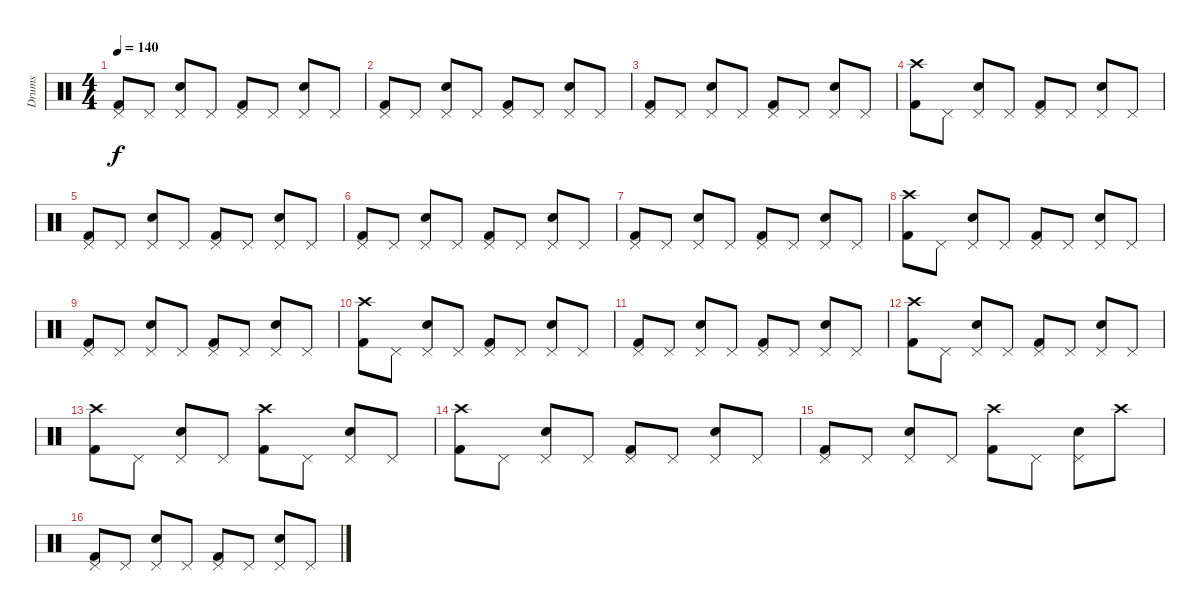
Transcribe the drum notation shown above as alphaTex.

\track ("Drums" "Drums") {instrument percussion}
\staff {score}
\articulation defaults
\ts (4 4)
\tempo 140
\clef neutral
\ks c
("Pedal Hi-Hat (hit)" "Kick (hit) 2").8{dy f} "Pedal Hi-Hat (hit)".8 ("Pedal Hi-Hat (hit)" "Snare (hit) 2").8 "Pedal Hi-Hat (hit)".8 ("Pedal Hi-Hat (hit)" "Kick (hit) 2").8 "Pedal Hi-Hat (hit)".8 ("Pedal Hi-Hat (hit)" "Snare (hit) 2").8 "Pedal Hi-Hat (hit)".8 |
("Pedal Hi-Hat (hit)" "Kick (hit) 2").8 "Pedal Hi-Hat (hit)".8 ("Pedal Hi-Hat (hit)" "Snare (hit) 2").8 "Pedal Hi-Hat (hit)".8 ("Pedal Hi-Hat (hit)" "Kick (hit) 2").8 "Pedal Hi-Hat (hit)".8 ("Pedal Hi-Hat (hit)" "Snare (hit) 2").8 "Pedal Hi-Hat (hit)".8 |
("Pedal Hi-Hat (hit)" "Kick (hit) 2").8 "Pedal Hi-Hat (hit)".8 ("Pedal Hi-Hat (hit)" "Snare (hit) 2").8 "Pedal Hi-Hat (hit)".8 ("Pedal Hi-Hat (hit)" "Kick (hit) 2").8 "Pedal Hi-Hat (hit)".8 ("Pedal Hi-Hat (hit)" "Snare (hit) 2").8 "Pedal Hi-Hat (hit)".8 |
("Crash high (hit)" "Kick (hit) 2").8 "Pedal Hi-Hat (hit)".8 ("Pedal Hi-Hat (hit)" "Snare (hit) 2").8 "Pedal Hi-Hat (hit)".8 ("Pedal Hi-Hat (hit)" "Kick (hit) 2").8 "Pedal Hi-Hat (hit)".8 ("Pedal Hi-Hat (hit)" "Snare (hit) 2").8 "Pedal Hi-Hat (hit)".8 |
("Pedal Hi-Hat (hit)" "Kick (hit) 2").8 "Pedal Hi-Hat (hit)".8 ("Pedal Hi-Hat (hit)" "Snare (hit) 2").8 "Pedal Hi-Hat (hit)".8 ("Pedal Hi-Hat (hit)" "Kick (hit) 2").8 "Pedal Hi-Hat (hit)".8 ("Pedal Hi-Hat (hit)" "Snare (hit) 2").8 "Pedal Hi-Hat (hit)".8 |
("Pedal Hi-Hat (hit)" "Kick (hit) 2").8 "Pedal Hi-Hat (hit)".8 ("Pedal Hi-Hat (hit)" "Snare (hit) 2").8 "Pedal Hi-Hat (hit)".8 ("Pedal Hi-Hat (hit)" "Kick (hit) 2").8 "Pedal Hi-Hat (hit)".8 ("Pedal Hi-Hat (hit)" "Snare (hit) 2").8 "Pedal Hi-Hat (hit)".8 |
("Pedal Hi-Hat (hit)" "Kick (hit) 2").8 "Pedal Hi-Hat (hit)".8 ("Pedal Hi-Hat (hit)" "Snare (hit) 2").8 "Pedal Hi-Hat (hit)".8 ("Pedal Hi-Hat (hit)" "Kick (hit) 2").8 "Pedal Hi-Hat (hit)".8 ("Pedal Hi-Hat (hit)" "Snare (hit) 2").8 "Pedal Hi-Hat (hit)".8 |
("Crash high (hit)" "Kick (hit) 2").8 "Pedal Hi-Hat (hit)".8 ("Pedal Hi-Hat (hit)" "Snare (hit) 2").8 "Pedal Hi-Hat (hit)".8 ("Pedal Hi-Hat (hit)" "Kick (hit) 2").8 "Pedal Hi-Hat (hit)".8 ("Pedal Hi-Hat (hit)" "Snare (hit) 2").8 "Pedal Hi-Hat (hit)".8 |
("Pedal Hi-Hat (hit)" "Kick (hit) 2").8 "Pedal Hi-Hat (hit)".8 ("Pedal Hi-Hat (hit)" "Snare (hit) 2").8 "Pedal Hi-Hat (hit)".8 ("Pedal Hi-Hat (hit)" "Kick (hit) 2").8 "Pedal Hi-Hat (hit)".8 ("Pedal Hi-Hat (hit)" "Snare (hit) 2").8 "Pedal Hi-Hat (hit)".8 |
("Crash high (hit)" "Kick (hit) 2").8 "Pedal Hi-Hat (hit)".8 ("Pedal Hi-Hat (hit)" "Snare (hit) 2").8 "Pedal Hi-Hat (hit)".8 ("Pedal Hi-Hat (hit)" "Kick (hit) 2").8 "Pedal Hi-Hat (hit)".8 ("Pedal Hi-Hat (hit)" "Snare (hit) 2").8 "Pedal Hi-Hat (hit)".8 |
("Pedal Hi-Hat (hit)" "Kick (hit) 2").8 "Pedal Hi-Hat (hit)".8 ("Pedal Hi-Hat (hit)" "Snare (hit) 2").8 "Pedal Hi-Hat (hit)".8 ("Pedal Hi-Hat (hit)" "Kick (hit) 2").8 "Pedal Hi-Hat (hit)".8 ("Pedal Hi-Hat (hit)" "Snare (hit) 2").8 "Pedal Hi-Hat (hit)".8 |
("Crash high (hit)" "Kick (hit) 2").8 "Pedal Hi-Hat (hit)".8 ("Pedal Hi-Hat (hit)" "Snare (hit) 2").8 "Pedal Hi-Hat (hit)".8 ("Pedal Hi-Hat (hit)" "Kick (hit) 2").8 "Pedal Hi-Hat (hit)".8 ("Pedal Hi-Hat (hit)" "Snare (hit) 2").8 "Pedal Hi-Hat (hit)".8 |
("Crash high (hit)" "Kick (hit) 2").8 "Pedal Hi-Hat (hit)".8 ("Pedal Hi-Hat (hit)" "Snare (hit) 2").8 "Pedal Hi-Hat (hit)".8 ("Crash high (hit)" "Kick (hit) 2").8 "Pedal Hi-Hat (hit)".8 ("Pedal Hi-Hat (hit)" "Snare (hit) 2").8 "Pedal Hi-Hat (hit)".8 |
("Crash high (hit)" "Kick (hit) 2").8 "Pedal Hi-Hat (hit)".8 ("Pedal Hi-Hat (hit)" "Snare (hit) 2").8 "Pedal Hi-Hat (hit)".8 ("Pedal Hi-Hat (hit)" "Kick (hit) 2").8 "Pedal Hi-Hat (hit)".8 ("Pedal Hi-Hat (hit)" "Snare (hit) 2").8 "Pedal Hi-Hat (hit)".8 |
("Pedal Hi-Hat (hit)" "Kick (hit) 2").8 "Pedal Hi-Hat (hit)".8 ("Pedal Hi-Hat (hit)" "Snare (hit) 2").8 "Pedal Hi-Hat (hit)".8 ("Crash high (hit)" "Kick (hit) 2").8 "Pedal Hi-Hat (hit)".8 ("Pedal Hi-Hat (hit)" "Snare (hit) 2").8 "Crash high (hit)".8 |
("Pedal Hi-Hat (hit)" "Kick (hit) 2").8 "Pedal Hi-Hat (hit)".8 ("Pedal Hi-Hat (hit)" "Snare (hit) 2").8 "Pedal Hi-Hat (hit)".8 ("Pedal Hi-Hat (hit)" "Kick (hit) 2").8 "Pedal Hi-Hat (hit)".8 ("Pedal Hi-Hat (hit)" "Snare (hit) 2").8 "Pedal Hi-Hat (hit)".8
